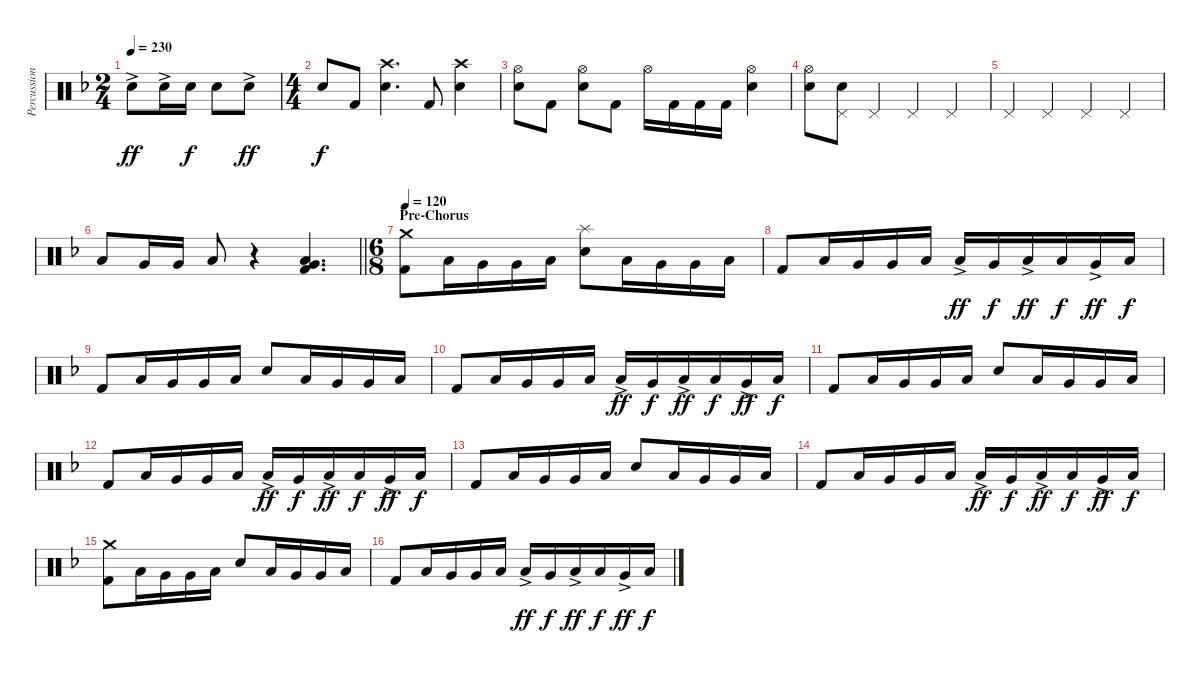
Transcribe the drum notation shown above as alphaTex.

\track ("Percussion" "Percussion") {instrument percussion}
\staff {score}
\articulation defaults
\ts (2 4)
\tempo 230
\clef neutral
\ks f "Electric Snare (hit)"{ac}.8{dy ff} "Electric Snare (hit)"{ac}.16 "Electric Snare (hit)".16{dy f} "Electric Snare (hit)".8 "Electric Snare (hit)"{ac}.8{dy ff}
|
\ts (4 4)
"Electric Snare (hit)".8{dy f} "Kick (hit) 2".8 ("Crash high (hit)" "Electric Snare (hit)").4{d} "Kick (hit) 2".8 ("Crash high (hit)" "Electric Snare (hit)").4 |
("Hi-Hat (open)" "Electric Snare (hit)").8 "Kick (hit) 2".8 ("Hi-Hat (open)" "Electric Snare (hit)").8 "Kick (hit) 2".8 "Hi-Hat (open)".16 "Kick (hit) 2".16 "Kick (hit) 2".16 "Kick (hit) 2".16 ("Hi-Hat (open)" "Electric Snare (hit)").4 |
("Hi-Hat (open)" "Electric Snare (hit)").8 ("Pedal Hi-Hat (hit)" "Electric Snare (hit)").8 "Pedal Hi-Hat (hit)".4 "Pedal Hi-Hat (hit)".4 "Pedal Hi-Hat (hit)".4 |
"Pedal Hi-Hat (hit)".4 "Pedal Hi-Hat (hit)".4 "Pedal Hi-Hat (hit)".4 "Pedal Hi-Hat (hit)".4 |
\barLineRight lightlight "Low Tom (hit)".8 "Very Low Tom (hit)".16 "Very Low Tom (hit)".16 "Low Floor Tom (hit)".8
r.4 ("Very Low Tom (hit)" "Low Floor Tom (hit)" "Kick (hit) 2").4{d} |
\ts (6 8)
\section ("" "Pre-Chorus")
\tempo 120
("Crash medium (hit)" "Kick (hit) 2").8{volume 10} "Low Tom (hit)".16 "Very Low Tom (hit)".16 "Very Low Tom (hit)".16 "Low Floor Tom (hit)".16 ("Splash (hit)" "Electric Snare (hit)").8 "Low Tom (hit)".16 "Very Low Tom (hit)".16 "Very Low Tom (hit)".16 "Low Floor Tom (hit)".16 |
"Kick (hit) 2".8 "Low Tom (hit)".16 "Very Low Tom (hit)".16 "Very Low Tom (hit)".16 "Low Floor Tom (hit)".16 "Low Tom (hit)"{ac}.16{dy ff} "Very Low Tom (hit)".16{dy f} "Low Tom (hit)"{ac}.16{dy ff} "Low Floor Tom (hit)".16{dy f} "Very Low Tom (hit)"{ac}.16{dy ff} "Low Floor Tom (hit)".16{dy f} |
"Kick (hit) 2".8 "Low Tom (hit)".16 "Very Low Tom (hit)".16 "Very Low Tom (hit)".16 "Low Floor Tom (hit)".16 "Electric Snare (hit)".8 "Low Tom (hit)".16 "Very Low Tom (hit)".16 "Very Low Tom (hit)".16 "Low Floor Tom (hit)".16 |
"Kick (hit) 2".8 "Low Tom (hit)".16 "Very Low Tom (hit)".16 "Very Low Tom (hit)".16 "Low Floor Tom (hit)".16 "Low Tom (hit)"{ac}.16{dy ff} "Very Low Tom (hit)".16{dy f} "Low Tom (hit)"{ac}.16{dy ff} "Low Floor Tom (hit)".16{dy f} "Very Low Tom (hit)"{ac}.16{dy ff} "Low Floor Tom (hit)".16{dy f} |
"Kick (hit) 2".8 "Low Tom (hit)".16 "Very Low Tom (hit)".16 "Very Low Tom (hit)".16 "Low Floor Tom (hit)".16 "Electric Snare (hit)".8 "Low Tom (hit)".16 "Very Low Tom (hit)".16 "Very Low Tom (hit)".16 "Low Floor Tom (hit)".16 |
"Kick (hit) 2".8 "Low Tom (hit)".16 "Very Low Tom (hit)".16 "Very Low Tom (hit)".16 "Low Floor Tom (hit)".16 "Low Tom (hit)"{ac}.16{dy ff} "Very Low Tom (hit)".16{dy f} "Low Tom (hit)"{ac}.16{dy ff} "Low Floor Tom (hit)".16{dy f} "Very Low Tom (hit)"{ac}.16{dy ff} "Low Floor Tom (hit)".16{dy f} |
"Kick (hit) 2".8 "Low Tom (hit)".16 "Very Low Tom (hit)".16 "Very Low Tom (hit)".16 "Low Floor Tom (hit)".16 "Electric Snare (hit)".8 "Low Tom (hit)".16 "Very Low Tom (hit)".16 "Very Low Tom (hit)".16 "Low Floor Tom (hit)".16 |
"Kick (hit) 2".8 "Low Tom (hit)".16 "Very Low Tom (hit)".16 "Very Low Tom (hit)".16 "Low Floor Tom (hit)".16 "Low Tom (hit)"{ac}.16{dy ff} "Very Low Tom (hit)".16{dy f} "Low Tom (hit)"{ac}.16{dy ff} "Low Floor Tom (hit)".16{dy f} "Very Low Tom (hit)"{ac}.16{dy ff} "Low Floor Tom (hit)".16{dy f} |
("Crash medium (hit)" "Kick (hit) 2").8 "Low Tom (hit)".16 "Very Low Tom (hit)".16 "Very Low Tom (hit)".16 "Low Floor Tom (hit)".16 "Electric Snare (hit)".8 "Low Tom (hit)".16 "Very Low Tom (hit)".16 "Very Low Tom (hit)".16 "Low Floor Tom (hit)".16 |
"Kick (hit) 2".8 "Low Tom (hit)".16 "Very Low Tom (hit)".16 "Very Low Tom (hit)".16 "Low Floor Tom (hit)".16 "Low Tom (hit)"{ac}.16{dy ff} "Very Low Tom (hit)".16{dy f} "Low Tom (hit)"{ac}.16{dy ff} "Low Floor Tom (hit)".16{dy f} "Very Low Tom (hit)"{ac}.16{dy ff} "Low Floor Tom (hit)".16{dy f}
